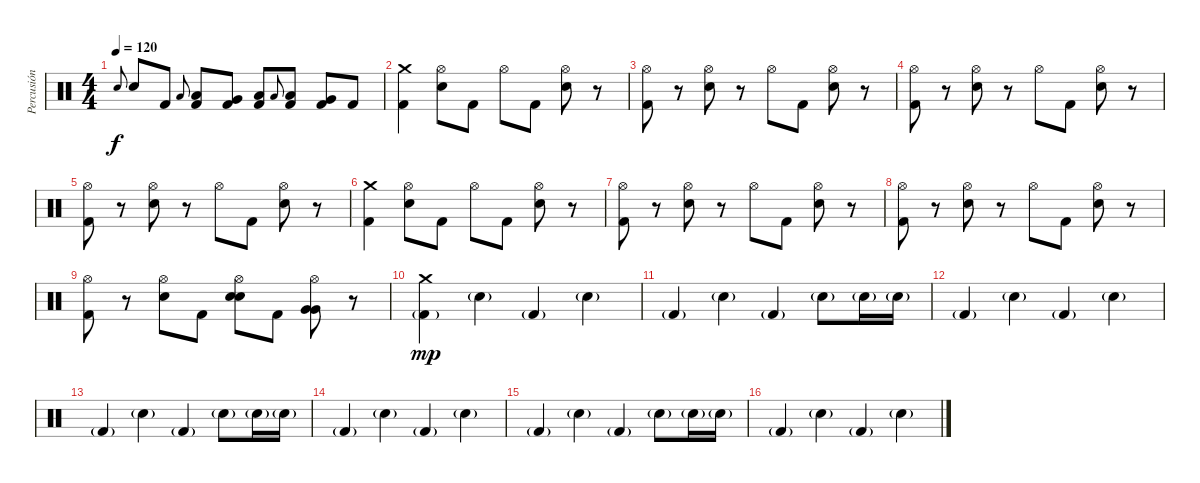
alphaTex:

\track ("Percusión" "Percusión") {instrument percussion}
\staff {score}
\articulation defaults
\ts (4 4)
\tempo 120
\clef neutral
\ks c "Electric Snare (hit)".8{gr onbeat dy f} "Electric Snare (hit)".8 "Kick (hit) 2".8 "Low Tom (hit)".8{gr onbeat}
("Low Tom (hit)" "Kick (hit) 2").8 ("Very Low Tom (hit)" "Kick (hit) 2").8 ("Low Floor Tom (hit)" "Kick (hit) 2").8 "Low Tom (hit)".8{gr onbeat} ("Low Tom (hit)" "Kick (hit) 2").8 ("Very Low Tom (hit)" "Kick (hit) 2").8 "Kick (hit) 2".8 |
("Crash medium (hit)" "Kick (hit) 2").4 ("Hi-Hat (open)" "Electric Snare (hit)").8 "Kick (hit) 2".8 "Hi-Hat (open)".8 "Kick (hit) 2".8 ("Hi-Hat (open)" "Electric Snare (hit)").8 r.8 |
("Hi-Hat (open)" "Kick (hit) 2").8 r.8 ("Hi-Hat (open)" "Electric Snare (hit)").8 r.8 "Hi-Hat (open)".8 "Kick (hit) 2".8 ("Hi-Hat (open)" "Electric Snare (hit)").8 r.8 |
("Hi-Hat (open)" "Kick (hit) 2").8 r.8 ("Hi-Hat (open)" "Electric Snare (hit)").8 r.8 "Hi-Hat (open)".8 "Kick (hit) 2".8 ("Hi-Hat (open)" "Electric Snare (hit)").8 r.8 |
("Hi-Hat (open)" "Kick (hit) 2").8 r.8 ("Hi-Hat (open)" "Electric Snare (hit)").8 r.8 "Hi-Hat (open)".8 "Kick (hit) 2".8 ("Hi-Hat (open)" "Electric Snare (hit)").8 r.8 |
("Crash medium (hit)" "Kick (hit) 2").4 ("Hi-Hat (open)" "Electric Snare (hit)").8 "Kick (hit) 2".8 "Hi-Hat (open)".8 "Kick (hit) 2".8 ("Hi-Hat (open)" "Electric Snare (hit)").8 r.8 |
("Hi-Hat (open)" "Kick (hit) 2").8 r.8 ("Hi-Hat (open)" "Electric Snare (hit)").8 r.8 "Hi-Hat (open)".8 "Kick (hit) 2".8 ("Hi-Hat (open)" "Electric Snare (hit)").8 r.8 |
("Hi-Hat (open)" "Kick (hit) 2").8 r.8 ("Hi-Hat (open)" "Electric Snare (hit)").8 r.8 "Hi-Hat (open)".8 "Kick (hit) 2".8 ("Hi-Hat (open)" "Electric Snare (hit)").8 r.8 |
("Hi-Hat (open)" "Kick (hit) 2").8 r.8 ("Hi-Hat (open)" "Electric Snare (hit)").8 "Kick (hit) 2".8 ("Hi-Hat (open)" "Electric Snare (hit)" "Electric Snare (hit)").8 "Kick (hit) 2".8 ("Hi-Hat (open)" "Very Low Tom (hit)" "Very Low Tom (hit)").8 r.8 |
("Crash medium (hit)" "Kick (hit) 2"{g}).4{dy mp} "Electric Snare (hit)"{g}.4 "Kick (hit) 2"{g}.4 "Electric Snare (hit)"{g}.4 |
"Kick (hit) 2"{g}.4 "Electric Snare (hit)"{g}.4 "Kick (hit) 2"{g}.4 "Electric Snare (hit)"{g}.8 "Electric Snare (hit)"{g}.16 "Electric Snare (hit)"{g}.16 |
"Kick (hit) 2"{g}.4 "Electric Snare (hit)"{g}.4 "Kick (hit) 2"{g}.4 "Electric Snare (hit)"{g}.4 |
"Kick (hit) 2"{g}.4 "Electric Snare (hit)"{g}.4 "Kick (hit) 2"{g}.4 "Electric Snare (hit)"{g}.8 "Electric Snare (hit)"{g}.16 "Electric Snare (hit)"{g}.16 |
"Kick (hit) 2"{g}.4 "Electric Snare (hit)"{g}.4 "Kick (hit) 2"{g}.4 "Electric Snare (hit)"{g}.4 |
"Kick (hit) 2"{g}.4 "Electric Snare (hit)"{g}.4 "Kick (hit) 2"{g}.4 "Electric Snare (hit)"{g}.8 "Electric Snare (hit)"{g}.16 "Electric Snare (hit)"{g}.16 |
"Kick (hit) 2"{g}.4 "Electric Snare (hit)"{g}.4 "Kick (hit) 2"{g}.4 "Electric Snare (hit)"{g}.4
